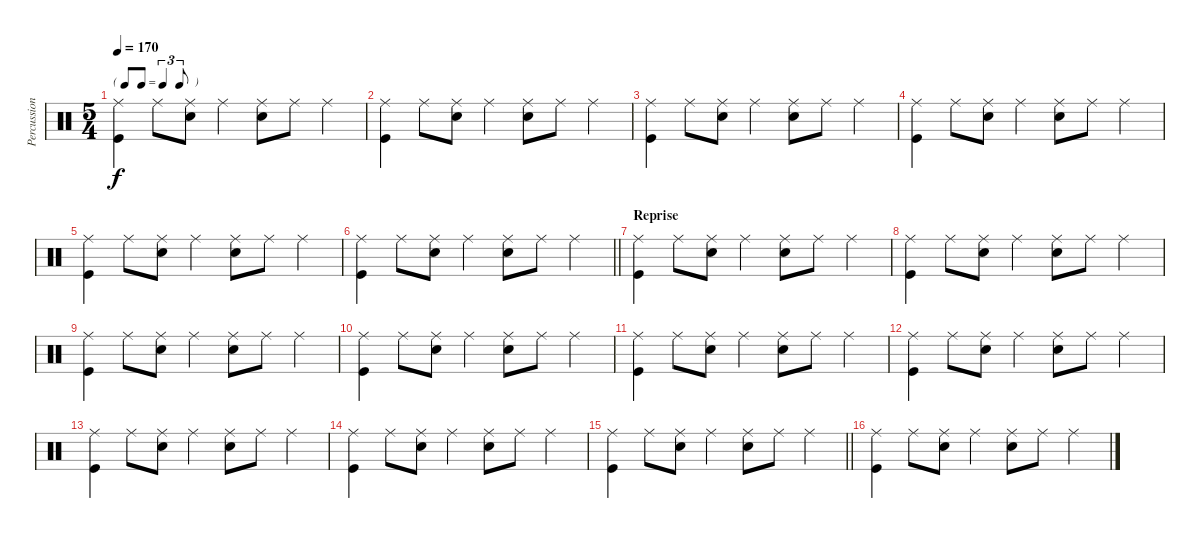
\track ("Percussions" "Percussion") {instrument percussion}
\staff {score}
\articulation defaults
\ts (5 4)
\tf triplet8th
\tempo 170
\clef neutral
\ks c
("Ride (middle)" "Kick (hit)").4{dy f} "Ride (middle)".8 ("Ride (middle)" "Snare (hit) 2").8 "Ride (middle)".4 ("Ride (middle)" "Snare (hit) 2").8 "Ride (middle)".8 "Ride (middle)".4 |
("Ride (middle)" "Kick (hit)").4 "Ride (middle)".8 ("Ride (middle)" "Snare (hit) 2").8 "Ride (middle)".4 ("Ride (middle)" "Snare (hit) 2").8 "Ride (middle)".8 "Ride (middle)".4 |
("Ride (middle)" "Kick (hit)").4 "Ride (middle)".8 ("Ride (middle)" "Snare (hit) 2").8 "Ride (middle)".4 ("Ride (middle)" "Snare (hit) 2").8 "Ride (middle)".8 "Ride (middle)".4 |
("Ride (middle)" "Kick (hit)").4 "Ride (middle)".8 ("Ride (middle)" "Snare (hit) 2").8 "Ride (middle)".4 ("Ride (middle)" "Snare (hit) 2").8 "Ride (middle)".8 "Ride (middle)".4 |
("Ride (middle)" "Kick (hit)").4 "Ride (middle)".8 ("Ride (middle)" "Snare (hit) 2").8 "Ride (middle)".4 ("Ride (middle)" "Snare (hit) 2").8 "Ride (middle)".8 "Ride (middle)".4 |
\barLineRight lightlight
("Ride (middle)" "Kick (hit)").4 "Ride (middle)".8 ("Ride (middle)" "Snare (hit) 2").8 "Ride (middle)".4 ("Ride (middle)" "Snare (hit) 2").8 "Ride (middle)".8 "Ride (middle)".4 |
\section ("" "Reprise")
("Ride (middle)" "Kick (hit)").4 "Ride (middle)".8 ("Ride (middle)" "Snare (hit) 2").8 "Ride (middle)".4 ("Ride (middle)" "Snare (hit) 2").8 "Ride (middle)".8 "Ride (middle)".4 |
("Ride (middle)" "Kick (hit)").4 "Ride (middle)".8 ("Ride (middle)" "Snare (hit) 2").8 "Ride (middle)".4 ("Ride (middle)" "Snare (hit) 2").8 "Ride (middle)".8 "Ride (middle)".4 |
("Ride (middle)" "Kick (hit)").4 "Ride (middle)".8 ("Ride (middle)" "Snare (hit) 2").8 "Ride (middle)".4 ("Ride (middle)" "Snare (hit) 2").8 "Ride (middle)".8 "Ride (middle)".4 |
("Ride (middle)" "Kick (hit)").4 "Ride (middle)".8 ("Ride (middle)" "Snare (hit) 2").8 "Ride (middle)".4 ("Ride (middle)" "Snare (hit) 2").8 "Ride (middle)".8 "Ride (middle)".4 |
("Ride (middle)" "Kick (hit)").4 "Ride (middle)".8 ("Ride (middle)" "Snare (hit) 2").8 "Ride (middle)".4 ("Ride (middle)" "Snare (hit) 2").8 "Ride (middle)".8 "Ride (middle)".4 |
("Ride (middle)" "Kick (hit)").4 "Ride (middle)".8 ("Ride (middle)" "Snare (hit) 2").8 "Ride (middle)".4 ("Ride (middle)" "Snare (hit) 2").8 "Ride (middle)".8 "Ride (middle)".4 |
("Ride (middle)" "Kick (hit)").4 "Ride (middle)".8 ("Ride (middle)" "Snare (hit) 2").8 "Ride (middle)".4 ("Ride (middle)" "Snare (hit) 2").8 "Ride (middle)".8 "Ride (middle)".4 |
("Ride (middle)" "Kick (hit)").4 "Ride (middle)".8 ("Ride (middle)" "Snare (hit) 2").8 "Ride (middle)".4 ("Ride (middle)" "Snare (hit) 2").8 "Ride (middle)".8 "Ride (middle)".4 |
\barLineRight lightlight
("Ride (middle)" "Kick (hit)").4 "Ride (middle)".8 ("Ride (middle)" "Snare (hit) 2").8 "Ride (middle)".4 ("Ride (middle)" "Snare (hit) 2").8 "Ride (middle)".8 "Ride (middle)".4 |
("Ride (middle)" "Kick (hit)").4 "Ride (middle)".8 ("Ride (middle)" "Snare (hit) 2").8 "Ride (middle)".4 ("Ride (middle)" "Snare (hit) 2").8 "Ride (middle)".8 "Ride (middle)".4
